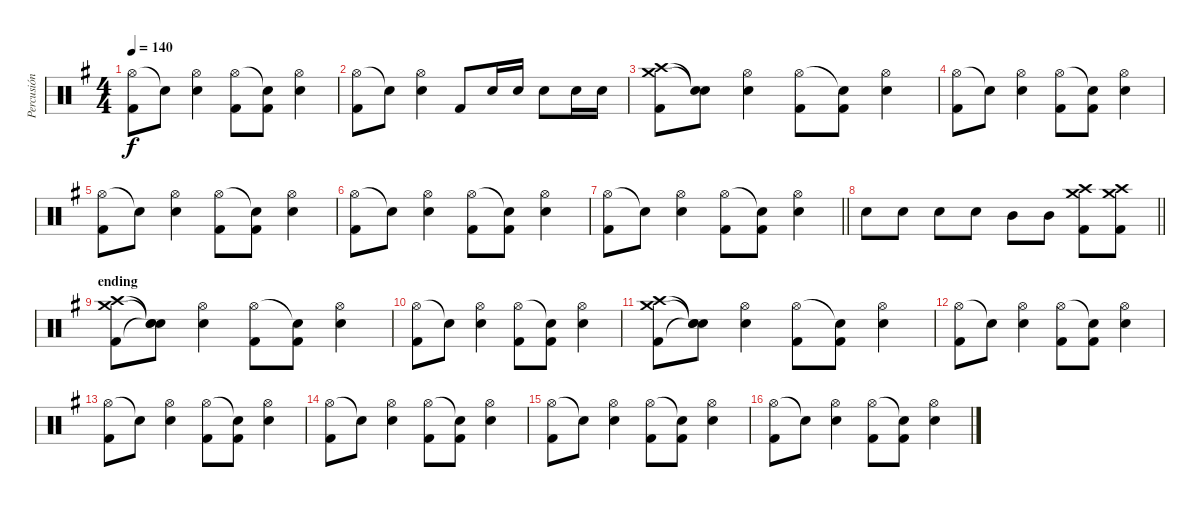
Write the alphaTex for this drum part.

\track ("Percusión" "Percusión") {instrument percussion}
\staff {score}
\articulation defaults
\ts (4 4)
\tempo 140
\clef neutral
\ks g
("Hi-Hat (open)" "Kick (hit) 2").8{dy f} "Snare (hit)"{t}.8 ("Hi-Hat (open)" "Electric Snare (hit)").4 ("Hi-Hat (open)" "Kick (hit) 2").8 ("Snare (hit)"{t} "Kick (hit) 2").8 ("Hi-Hat (open)" "Electric Snare (hit)").4 |
("Hi-Hat (open)" "Kick (hit) 2").8 "Snare (hit)"{t}.8 ("Hi-Hat (open)" "Electric Snare (hit)").4 "Kick (hit) 2".8 "Electric Snare (hit)".16 "Electric Snare (hit)".16 "Electric Snare (hit)".8 "Electric Snare (hit)".16 "Electric Snare (hit)".16 |
("Crash medium (hit)" "Crash high (hit)" "Kick (hit) 2").8 ("Snare (hit)"{t} "Snare (hit)"{t}).8 ("Hi-Hat (open)" "Electric Snare (hit)").4 ("Hi-Hat (open)" "Kick (hit) 2").8 ("Snare (hit)"{t} "Kick (hit) 2").8 ("Hi-Hat (open)" "Electric Snare (hit)").4 |
("Hi-Hat (open)" "Kick (hit) 2").8 "Snare (hit)"{t}.8 ("Hi-Hat (open)" "Electric Snare (hit)").4 ("Hi-Hat (open)" "Kick (hit) 2").8 ("Snare (hit)"{t} "Kick (hit) 2").8 ("Hi-Hat (open)" "Electric Snare (hit)").4 |
("Hi-Hat (open)" "Kick (hit) 2").8 "Snare (hit)"{t}.8 ("Hi-Hat (open)" "Electric Snare (hit)").4 ("Hi-Hat (open)" "Kick (hit) 2").8 ("Snare (hit)"{t} "Kick (hit) 2").8 ("Hi-Hat (open)" "Electric Snare (hit)").4 |
("Hi-Hat (open)" "Kick (hit) 2").8 "Snare (hit)"{t}.8 ("Hi-Hat (open)" "Electric Snare (hit)").4 ("Hi-Hat (open)" "Kick (hit) 2").8 ("Snare (hit)"{t} "Kick (hit) 2").8 ("Hi-Hat (open)" "Electric Snare (hit)").4 |
\barLineRight lightlight
("Hi-Hat (open)" "Kick (hit) 2").8 "Snare (hit)"{t}.8 ("Hi-Hat (open)" "Electric Snare (hit)").4 ("Hi-Hat (open)" "Kick (hit) 2").8 ("Snare (hit)"{t} "Kick (hit) 2").8 ("Hi-Hat (open)" "Electric Snare (hit)").4 |
\barLineRight lightlight "Electric Snare (hit)".8 "Electric Snare (hit)".8 "Electric Snare (hit)".8 "Electric Snare (hit)".8 "Mid Tom (hit)".8 "Mid Tom (hit)".8
("Crash high (hit)" "Crash medium (hit)" "Kick (hit) 2").8 ("Crash high (hit)" "Crash medium (hit)" "Kick (hit) 2").8 |
\section ("" "ending")
("Crash medium (hit)" "Crash high (hit)" "Kick (hit) 2").8 ("Snare (hit)"{t} "Snare (hit)"{t} "Snare (hit)"{t}).8 ("Hi-Hat (open)" "Electric Snare (hit)").4 ("Hi-Hat (open)" "Kick (hit) 2").8 ("Snare (hit)"{t} "Kick (hit) 2").8 ("Hi-Hat (open)" "Electric Snare (hit)").4 |
("Hi-Hat (open)" "Kick (hit) 2").8 "Snare (hit)"{t}.8 ("Hi-Hat (open)" "Electric Snare (hit)").4 ("Hi-Hat (open)" "Kick (hit) 2").8 ("Snare (hit)"{t} "Kick (hit) 2").8 ("Hi-Hat (open)" "Electric Snare (hit)").4 |
("Crash medium (hit)" "Crash high (hit)" "Kick (hit) 2").8 ("Snare (hit)"{t} "Snare (hit)"{t} "Snare (hit)"{t}).8 ("Hi-Hat (open)" "Electric Snare (hit)").4 ("Hi-Hat (open)" "Kick (hit) 2").8 ("Snare (hit)"{t} "Kick (hit) 2").8 ("Hi-Hat (open)" "Electric Snare (hit)").4 |
("Hi-Hat (open)" "Kick (hit) 2").8 "Snare (hit)"{t}.8 ("Hi-Hat (open)" "Electric Snare (hit)").4 ("Hi-Hat (open)" "Kick (hit) 2").8 ("Snare (hit)"{t} "Kick (hit) 2").8 ("Hi-Hat (open)" "Electric Snare (hit)").4 |
("Hi-Hat (open)" "Kick (hit) 2").8 "Snare (hit)"{t}.8 ("Hi-Hat (open)" "Electric Snare (hit)").4 ("Hi-Hat (open)" "Kick (hit) 2").8 ("Snare (hit)"{t} "Kick (hit) 2").8 ("Hi-Hat (open)" "Electric Snare (hit)").4 |
("Hi-Hat (open)" "Kick (hit) 2").8 "Snare (hit)"{t}.8 ("Hi-Hat (open)" "Electric Snare (hit)").4 ("Hi-Hat (open)" "Kick (hit) 2").8 ("Snare (hit)"{t} "Kick (hit) 2").8 ("Hi-Hat (open)" "Electric Snare (hit)").4 |
("Hi-Hat (open)" "Kick (hit) 2").8 "Snare (hit)"{t}.8 ("Hi-Hat (open)" "Electric Snare (hit)").4 ("Hi-Hat (open)" "Kick (hit) 2").8 ("Snare (hit)"{t} "Kick (hit) 2").8 ("Hi-Hat (open)" "Electric Snare (hit)").4 |
("Hi-Hat (open)" "Kick (hit) 2").8 "Snare (hit)"{t}.8 ("Hi-Hat (open)" "Electric Snare (hit)").4 ("Hi-Hat (open)" "Kick (hit) 2").8 ("Snare (hit)"{t} "Kick (hit) 2").8 ("Hi-Hat (open)" "Electric Snare (hit)").4
